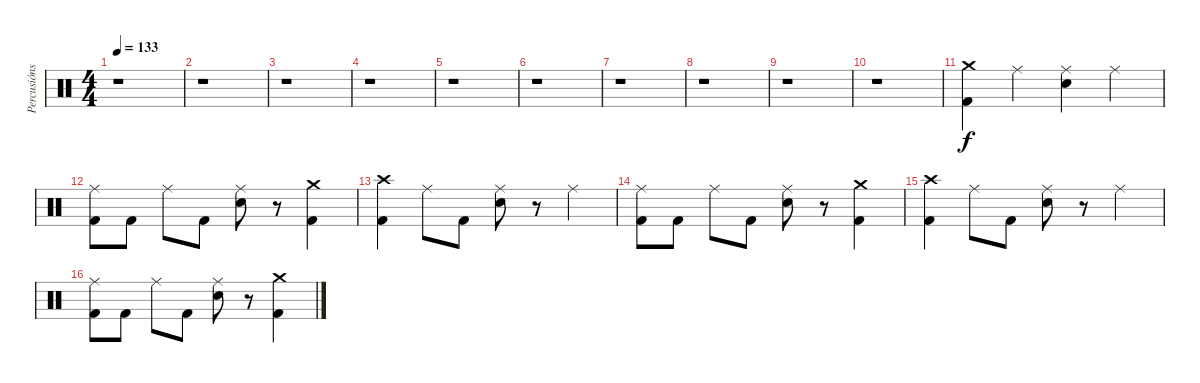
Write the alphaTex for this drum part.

\track ("Percusións" "Percusións") {instrument percussion}
\staff {score}
\articulation defaults
\ts (4 4)
\tempo 133
\clef neutral
\ks c
r.1{dy fff} |
r.1 |
r.1 |
r.1 |
r.1 |
r.1 |
r.1 |
r.1 |
r.1 |
r.1 |
("Crash medium (hit)" "Kick (hit) 2").4{dy f} "Ride (middle)".4 ("Ride (middle)" "Snare (hit) 2").4 "Ride (middle)".4 |
("Ride (middle)" "Kick (hit) 2").8 "Kick (hit) 2".8 "Ride (middle)".8 "Kick (hit) 2".8 ("Ride (middle)" "Snare (hit) 2").8 r.8 ("Crash medium (hit)" "Kick (hit) 2").4 |
("Crash high (hit)" "Kick (hit) 2").4 "Ride (middle)".8 "Kick (hit) 2".8 ("Ride (middle)" "Snare (hit) 2").8 r.8 "Ride (middle)".4 |
("Ride (middle)" "Kick (hit) 2").8 "Kick (hit) 2".8 "Ride (middle)".8 "Kick (hit) 2".8 ("Ride (middle)" "Snare (hit) 2").8 r.8 ("Crash medium (hit)" "Kick (hit) 2").4 |
("Crash high (hit)" "Kick (hit) 2").4 "Ride (middle)".8 "Kick (hit) 2".8 ("Ride (middle)" "Snare (hit) 2").8 r.8 "Ride (middle)".4 |
("Ride (middle)" "Kick (hit) 2").8 "Kick (hit) 2".8 "Ride (middle)".8 "Kick (hit) 2".8 ("Ride (middle)" "Snare (hit) 2").8 r.8 ("Crash medium (hit)" "Kick (hit) 2").4
